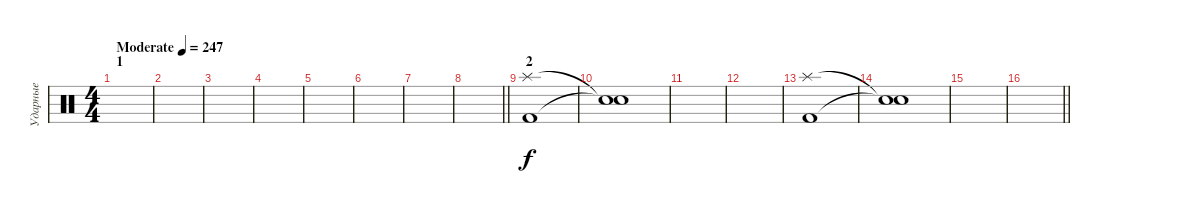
\track ("Ударные" "Ударные") {instrument percussion}
\staff {score}
\articulation defaults
\ts (4 4)
\section ("" "1")
\tempo (247 "Moderate")
\clef neutral
\ks c
|
|
|
|
|
|
|
\barLineRight lightlight
|
\section ("" " 2")
("Kick (hit) 2" "Splash (hit)").1 |
("Snare (hit)"{t} "Snare (hit)"{t}).1 |
|
|
("Kick (hit) 2" "Splash (hit)").1 |
("Snare (hit)"{t} "Snare (hit)"{t}).1 |
|
\barLineRight lightlight
